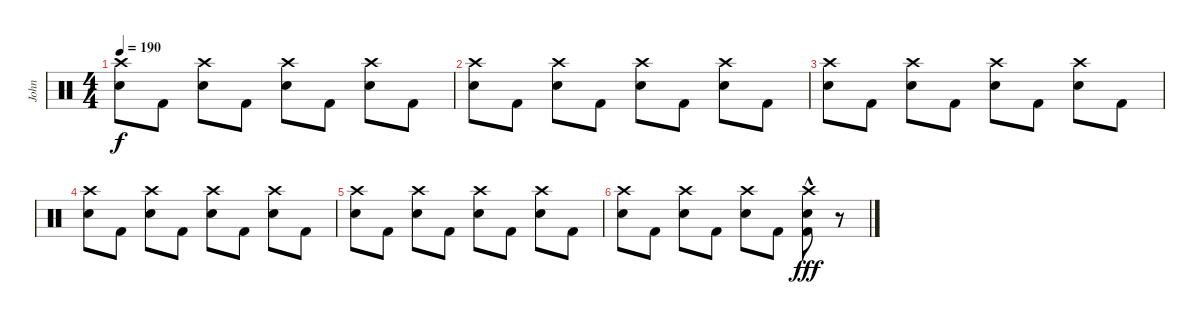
\track ("John" "John") {instrument percussion}
\staff {score}
\articulation defaults
\ts (4 4)
\tempo 190
\clef neutral
\ks c
("Crash high (hit)" "Electric Snare (hit)").8{dy f} "Kick (hit) 2".8 ("Crash high (hit)" "Electric Snare (hit)").8 "Kick (hit) 2".8 ("Crash high (hit)" "Electric Snare (hit)").8 "Kick (hit) 2".8 ("Crash high (hit)" "Electric Snare (hit)").8 "Kick (hit) 2".8 |
("Crash high (hit)" "Electric Snare (hit)").8 "Kick (hit) 2".8 ("Crash high (hit)" "Electric Snare (hit)").8 "Kick (hit) 2".8 ("Crash high (hit)" "Electric Snare (hit)").8 "Kick (hit) 2".8 ("Crash high (hit)" "Electric Snare (hit)").8 "Kick (hit) 2".8 |
("Crash high (hit)" "Electric Snare (hit)").8 "Kick (hit) 2".8 ("Crash high (hit)" "Electric Snare (hit)").8 "Kick (hit) 2".8 ("Crash high (hit)" "Electric Snare (hit)").8 "Kick (hit) 2".8 ("Crash high (hit)" "Electric Snare (hit)").8 "Kick (hit) 2".8 |
("Crash high (hit)" "Electric Snare (hit)").8 "Kick (hit) 2".8 ("Crash high (hit)" "Electric Snare (hit)").8 "Kick (hit) 2".8 ("Crash high (hit)" "Electric Snare (hit)").8 "Kick (hit) 2".8 ("Crash high (hit)" "Electric Snare (hit)").8 "Kick (hit) 2".8 |
("Crash high (hit)" "Electric Snare (hit)").8 "Kick (hit) 2".8 ("Crash high (hit)" "Electric Snare (hit)").8 "Kick (hit) 2".8 ("Crash high (hit)" "Electric Snare (hit)").8 "Kick (hit) 2".8 ("Crash high (hit)" "Electric Snare (hit)").8 "Kick (hit) 2".8 |
("Crash high (hit)" "Electric Snare (hit)").8 "Kick (hit) 2".8 ("Crash high (hit)" "Electric Snare (hit)").8 "Kick (hit) 2".8 ("Crash high (hit)" "Electric Snare (hit)").8 "Kick (hit) 2".8 ("Crash high (hit)"{hac} "Electric Snare (hit)"{hac} "Kick (hit) 2"{hac}).8{dy fff} r.8
